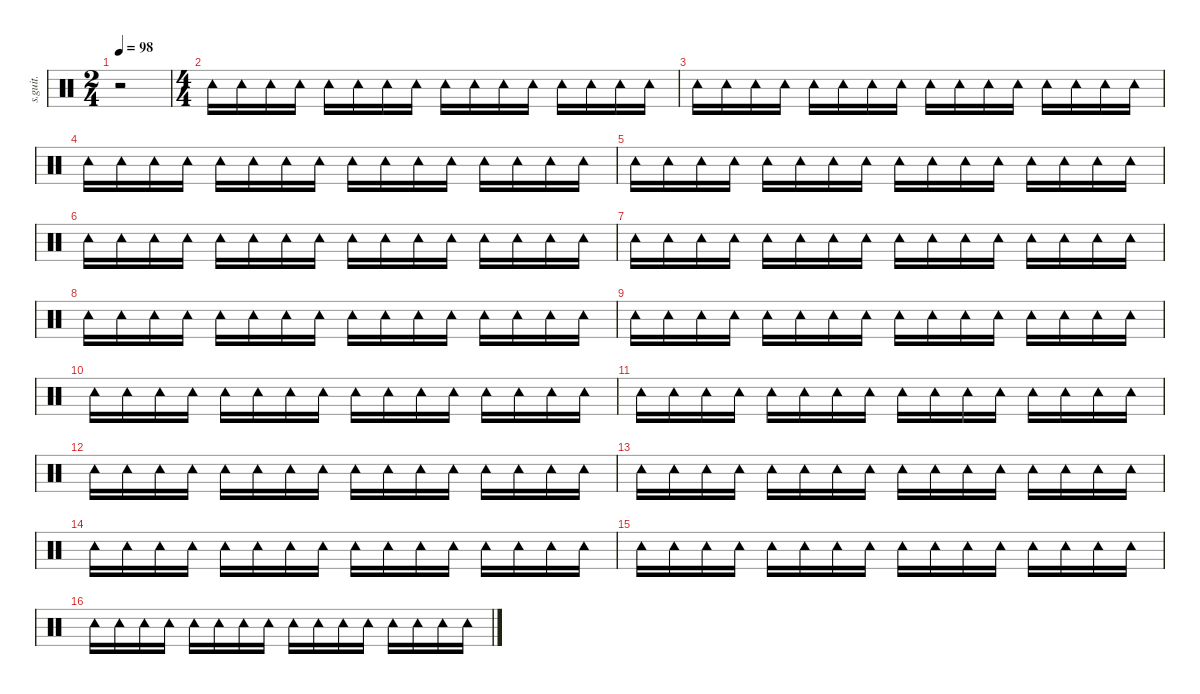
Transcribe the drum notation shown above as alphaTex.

\defaultSystemsLayout 4
\hideDynamics
\bracketExtendMode nobrackets
\track ("Additional Percussion" "s.guit.") {instrument percussion}
\staff {score}
\articulation defaults
\ts (2 4)
\beaming (8 2 2 2 2)
\tempo 98
\clef neutral
\ks c
r.2{dy ff} |
\ts (4 4)
\beaming (8 2 2 2 2)
"Tambourine (hit)".16 "Tambourine (hit)".16 "Tambourine (hit)".16 "Tambourine (hit)".16 "Tambourine (hit)".16 "Tambourine (hit)".16 "Tambourine (hit)".16 "Tambourine (hit)".16 "Tambourine (hit)".16 "Tambourine (hit)".16 "Tambourine (hit)".16 "Tambourine (hit)".16 "Tambourine (hit)".16 "Tambourine (hit)".16 "Tambourine (hit)".16 "Tambourine (hit)".16 |
"Tambourine (hit)".16 "Tambourine (hit)".16 "Tambourine (hit)".16 "Tambourine (hit)".16 "Tambourine (hit)".16 "Tambourine (hit)".16 "Tambourine (hit)".16 "Tambourine (hit)".16 "Tambourine (hit)".16 "Tambourine (hit)".16 "Tambourine (hit)".16 "Tambourine (hit)".16 "Tambourine (hit)".16 "Tambourine (hit)".16 "Tambourine (hit)".16 "Tambourine (hit)".16 |
"Tambourine (hit)".16 "Tambourine (hit)".16 "Tambourine (hit)".16 "Tambourine (hit)".16 "Tambourine (hit)".16 "Tambourine (hit)".16 "Tambourine (hit)".16 "Tambourine (hit)".16 "Tambourine (hit)".16 "Tambourine (hit)".16 "Tambourine (hit)".16 "Tambourine (hit)".16 "Tambourine (hit)".16 "Tambourine (hit)".16 "Tambourine (hit)".16 "Tambourine (hit)".16 |
"Tambourine (hit)".16 "Tambourine (hit)".16 "Tambourine (hit)".16 "Tambourine (hit)".16 "Tambourine (hit)".16 "Tambourine (hit)".16 "Tambourine (hit)".16 "Tambourine (hit)".16 "Tambourine (hit)".16 "Tambourine (hit)".16 "Tambourine (hit)".16 "Tambourine (hit)".16 "Tambourine (hit)".16 "Tambourine (hit)".16 "Tambourine (hit)".16 "Tambourine (hit)".16 |
"Tambourine (hit)".16 "Tambourine (hit)".16 "Tambourine (hit)".16 "Tambourine (hit)".16 "Tambourine (hit)".16 "Tambourine (hit)".16 "Tambourine (hit)".16 "Tambourine (hit)".16 "Tambourine (hit)".16 "Tambourine (hit)".16 "Tambourine (hit)".16 "Tambourine (hit)".16 "Tambourine (hit)".16 "Tambourine (hit)".16 "Tambourine (hit)".16 "Tambourine (hit)".16 |
"Tambourine (hit)".16 "Tambourine (hit)".16 "Tambourine (hit)".16 "Tambourine (hit)".16 "Tambourine (hit)".16 "Tambourine (hit)".16 "Tambourine (hit)".16 "Tambourine (hit)".16 "Tambourine (hit)".16 "Tambourine (hit)".16 "Tambourine (hit)".16 "Tambourine (hit)".16 "Tambourine (hit)".16 "Tambourine (hit)".16 "Tambourine (hit)".16 "Tambourine (hit)".16 |
"Tambourine (hit)".16 "Tambourine (hit)".16 "Tambourine (hit)".16 "Tambourine (hit)".16 "Tambourine (hit)".16 "Tambourine (hit)".16 "Tambourine (hit)".16 "Tambourine (hit)".16 "Tambourine (hit)".16 "Tambourine (hit)".16 "Tambourine (hit)".16 "Tambourine (hit)".16 "Tambourine (hit)".16 "Tambourine (hit)".16 "Tambourine (hit)".16 "Tambourine (hit)".16 |
"Tambourine (hit)".16 "Tambourine (hit)".16 "Tambourine (hit)".16 "Tambourine (hit)".16 "Tambourine (hit)".16 "Tambourine (hit)".16 "Tambourine (hit)".16 "Tambourine (hit)".16 "Tambourine (hit)".16 "Tambourine (hit)".16 "Tambourine (hit)".16 "Tambourine (hit)".16 "Tambourine (hit)".16 "Tambourine (hit)".16 "Tambourine (hit)".16 "Tambourine (hit)".16 |
"Tambourine (hit)".16 "Tambourine (hit)".16 "Tambourine (hit)".16 "Tambourine (hit)".16 "Tambourine (hit)".16 "Tambourine (hit)".16 "Tambourine (hit)".16 "Tambourine (hit)".16 "Tambourine (hit)".16 "Tambourine (hit)".16 "Tambourine (hit)".16 "Tambourine (hit)".16 "Tambourine (hit)".16 "Tambourine (hit)".16 "Tambourine (hit)".16 "Tambourine (hit)".16 |
"Tambourine (hit)".16 "Tambourine (hit)".16 "Tambourine (hit)".16 "Tambourine (hit)".16 "Tambourine (hit)".16 "Tambourine (hit)".16 "Tambourine (hit)".16 "Tambourine (hit)".16 "Tambourine (hit)".16 "Tambourine (hit)".16 "Tambourine (hit)".16 "Tambourine (hit)".16 "Tambourine (hit)".16 "Tambourine (hit)".16 "Tambourine (hit)".16 "Tambourine (hit)".16 |
"Tambourine (hit)".16 "Tambourine (hit)".16 "Tambourine (hit)".16 "Tambourine (hit)".16 "Tambourine (hit)".16 "Tambourine (hit)".16 "Tambourine (hit)".16 "Tambourine (hit)".16 "Tambourine (hit)".16 "Tambourine (hit)".16 "Tambourine (hit)".16 "Tambourine (hit)".16 "Tambourine (hit)".16 "Tambourine (hit)".16 "Tambourine (hit)".16 "Tambourine (hit)".16 |
"Tambourine (hit)".16 "Tambourine (hit)".16 "Tambourine (hit)".16 "Tambourine (hit)".16 "Tambourine (hit)".16 "Tambourine (hit)".16 "Tambourine (hit)".16 "Tambourine (hit)".16 "Tambourine (hit)".16 "Tambourine (hit)".16 "Tambourine (hit)".16 "Tambourine (hit)".16 "Tambourine (hit)".16 "Tambourine (hit)".16 "Tambourine (hit)".16 "Tambourine (hit)".16 |
"Tambourine (hit)".16 "Tambourine (hit)".16 "Tambourine (hit)".16 "Tambourine (hit)".16 "Tambourine (hit)".16 "Tambourine (hit)".16 "Tambourine (hit)".16 "Tambourine (hit)".16 "Tambourine (hit)".16 "Tambourine (hit)".16 "Tambourine (hit)".16 "Tambourine (hit)".16 "Tambourine (hit)".16 "Tambourine (hit)".16 "Tambourine (hit)".16 "Tambourine (hit)".16 |
"Tambourine (hit)".16 "Tambourine (hit)".16 "Tambourine (hit)".16 "Tambourine (hit)".16 "Tambourine (hit)".16 "Tambourine (hit)".16 "Tambourine (hit)".16 "Tambourine (hit)".16 "Tambourine (hit)".16 "Tambourine (hit)".16 "Tambourine (hit)".16 "Tambourine (hit)".16 "Tambourine (hit)".16 "Tambourine (hit)".16 "Tambourine (hit)".16 "Tambourine (hit)".16 |
"Tambourine (hit)".16 "Tambourine (hit)".16 "Tambourine (hit)".16 "Tambourine (hit)".16 "Tambourine (hit)".16 "Tambourine (hit)".16 "Tambourine (hit)".16 "Tambourine (hit)".16 "Tambourine (hit)".16 "Tambourine (hit)".16 "Tambourine (hit)".16 "Tambourine (hit)".16 "Tambourine (hit)".16 "Tambourine (hit)".16 "Tambourine (hit)".16 "Tambourine (hit)".16
